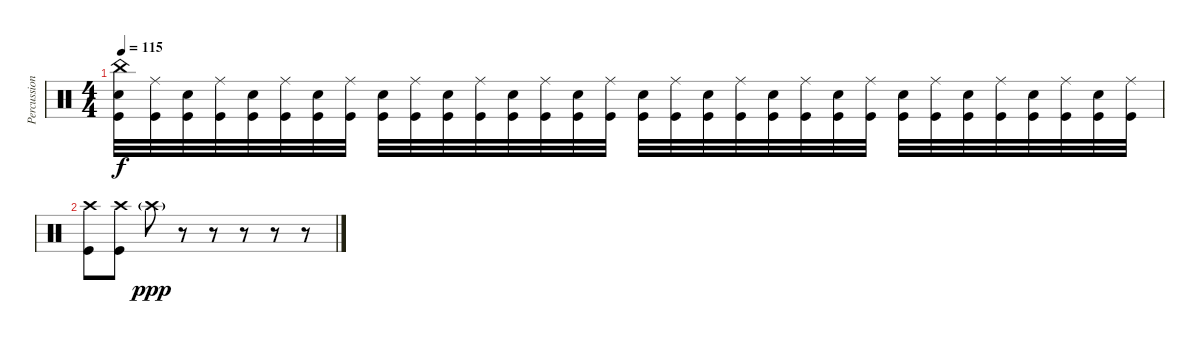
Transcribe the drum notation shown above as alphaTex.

\track ("Percussion" "Percussion") {instrument percussion}
\staff {score}
\articulation defaults
\ts (4 4)
\tempo 115
\clef neutral
\ks c
("China (hit)" "Electric Snare (hit)" "Kick (hit)").32{dy f} ("Ride (middle)" "Kick (hit)").32 ("Electric Snare (hit)" "Kick (hit)").32 ("Ride (middle)" "Kick (hit)").32 ("Electric Snare (hit)" "Kick (hit)").32 ("Ride (middle)" "Kick (hit)").32 ("Electric Snare (hit)" "Kick (hit)").32 ("Ride (middle)" "Kick (hit)").32 ("Electric Snare (hit)" "Kick (hit)").32 ("Ride (middle)" "Kick (hit)").32 ("Electric Snare (hit)" "Kick (hit)").32 ("Ride (middle)" "Kick (hit)").32 ("Electric Snare (hit)" "Kick (hit)").32 ("Ride (middle)" "Kick (hit)").32 ("Electric Snare (hit)" "Kick (hit)").32 ("Ride (middle)" "Kick (hit)").32 ("Electric Snare (hit)" "Kick (hit)").32 ("Ride (middle)" "Kick (hit)").32 ("Electric Snare (hit)" "Kick (hit)").32 ("Ride (middle)" "Kick (hit)").32 ("Electric Snare (hit)" "Kick (hit)").32 ("Ride (middle)" "Kick (hit)").32 ("Electric Snare (hit)" "Kick (hit)").32 ("Ride (middle)" "Kick (hit)").32 ("Electric Snare (hit)" "Kick (hit)").32 ("Ride (middle)" "Kick (hit)").32 ("Electric Snare (hit)" "Kick (hit)").32 ("Ride (middle)" "Kick (hit)").32 ("Electric Snare (hit)" "Kick (hit)").32 ("Ride (middle)" "Kick (hit)").32 ("Electric Snare (hit)" "Kick (hit)").32 ("Ride (middle)" "Kick (hit)").32 |
("Crash high (hit)" "Kick (hit)").8 ("Crash high (hit)" "Kick (hit)").8 "Crash high (hit)"{g}.8{dy ppp} r.8 r.8 r.8 r.8 r.8
